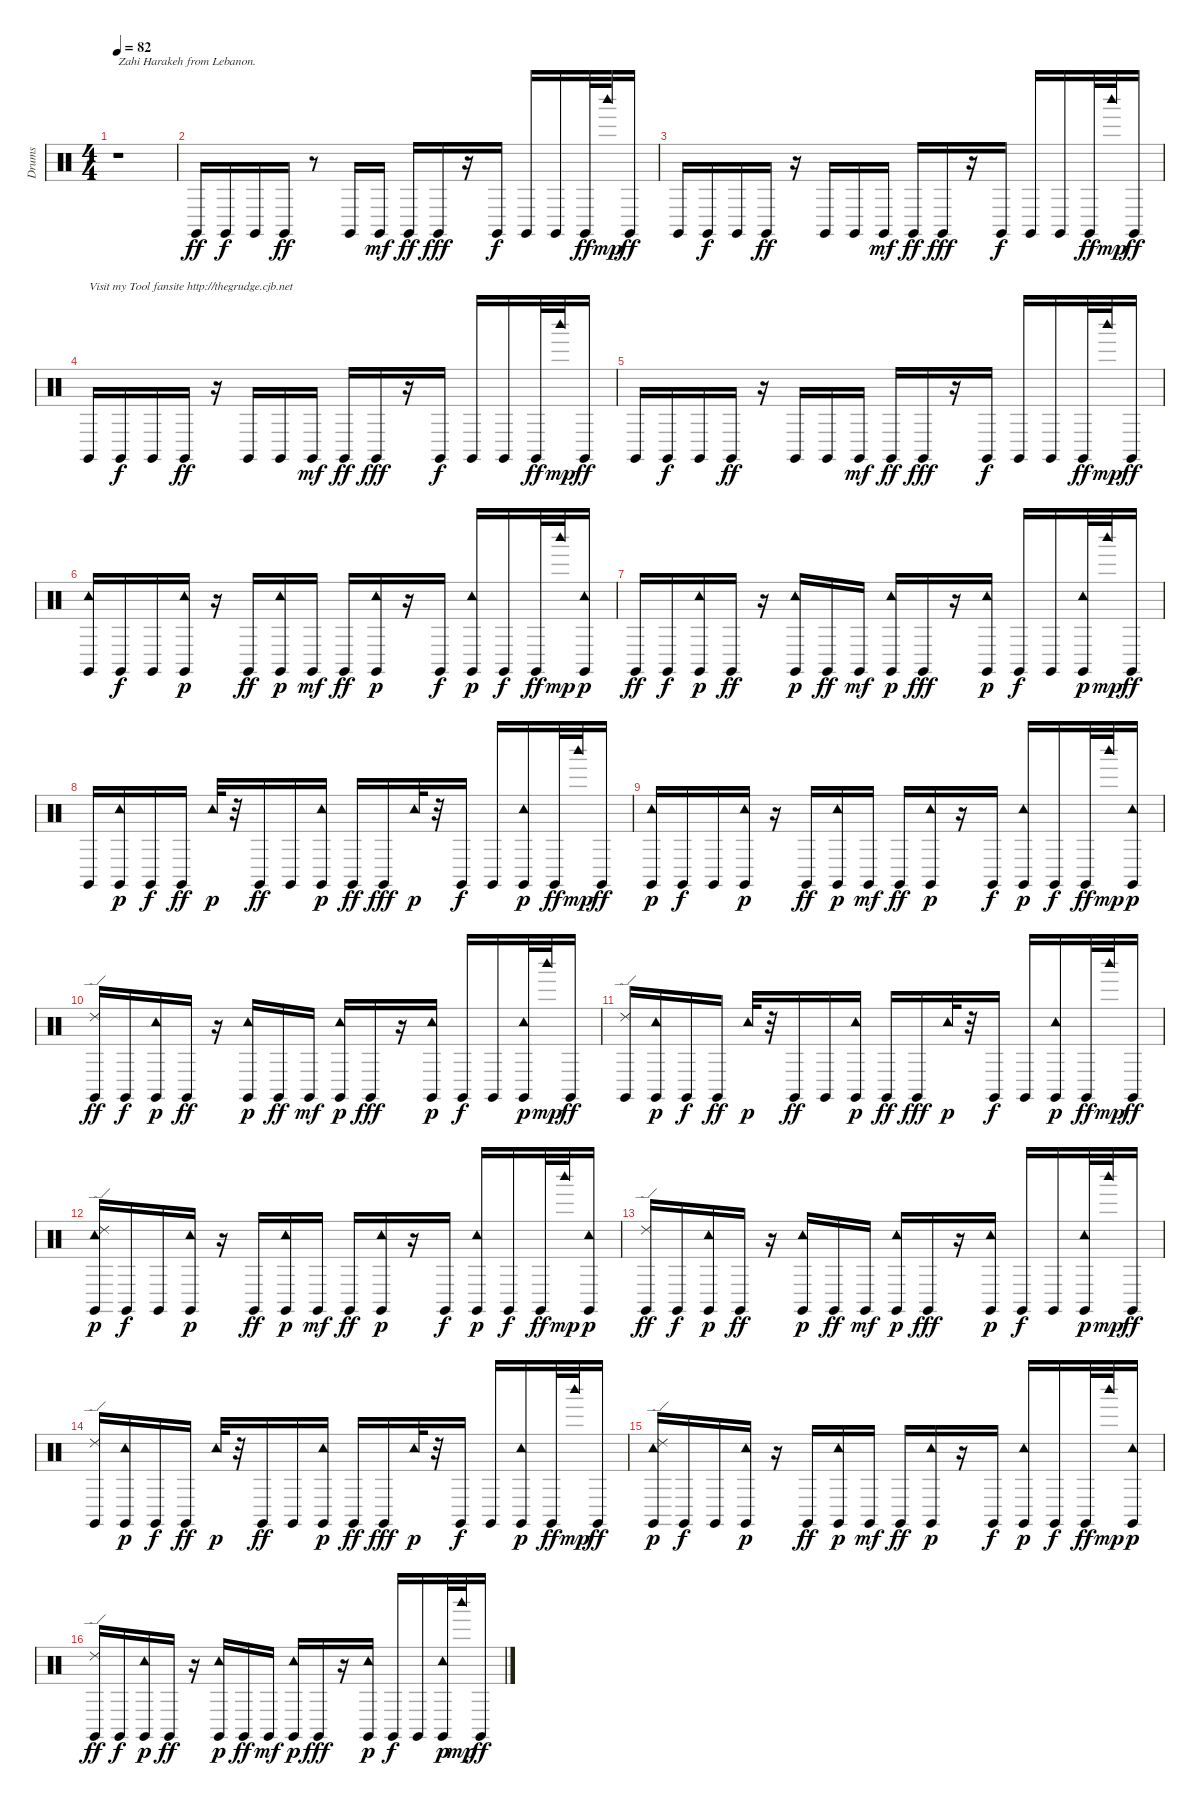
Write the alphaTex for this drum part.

\track ("Drums" "Drums") {instrument percussion}
\staff {score}
\articulation defaults
\ts (4 4)
\tempo 82
\clef neutral
\ks c
r.1{txt "Zahi Harakeh from Lebanon." dy ff} |
"Claves (hit)".16 "Claves (hit)".16{dy f} "Claves (hit)".16 "Claves (hit)".16{dy ff} r.8 "Claves (hit)".16 "Claves (hit)".16{dy mf} "Claves (hit)".16{dy ff} "Claves (hit)".16{dy fff} r.16 "Claves (hit)".16{dy f} "Claves (hit)".16 "Claves (hit)".16 "Claves (hit)".32{dy ff} "Woodblock high (hit)".32{dy mp} "Claves (hit)".16{dy ff} |
"Claves (hit)".16 "Claves (hit)".16{dy f} "Claves (hit)".16 "Claves (hit)".16{dy ff} r.16 "Claves (hit)".16 "Claves (hit)".16 "Claves (hit)".16{dy mf} "Claves (hit)".16{dy ff} "Claves (hit)".16{dy fff} r.16 "Claves (hit)".16{dy f} "Claves (hit)".16 "Claves (hit)".16 "Claves (hit)".32{dy ff} "Woodblock high (hit)".32{dy mp} "Claves (hit)".16{dy ff} |
"Claves (hit)".16{txt "Visit my Tool fansite http://thegrudge.cjb.net"} "Claves (hit)".16{dy f} "Claves (hit)".16 "Claves (hit)".16{dy ff} r.16 "Claves (hit)".16 "Claves (hit)".16 "Claves (hit)".16{dy mf} "Claves (hit)".16{dy ff} "Claves (hit)".16{dy fff} r.16 "Claves (hit)".16{dy f} "Claves (hit)".16 "Claves (hit)".16 "Claves (hit)".32{dy ff} "Woodblock high (hit)".32{dy mp} "Claves (hit)".16{dy ff} |
"Claves (hit)".16 "Claves (hit)".16{dy f} "Claves (hit)".16 "Claves (hit)".16{dy ff} r.16 "Claves (hit)".16 "Claves (hit)".16 "Claves (hit)".16{dy mf} "Claves (hit)".16{dy ff} "Claves (hit)".16{dy fff} r.16 "Claves (hit)".16{dy f} "Claves (hit)".16 "Claves (hit)".16 "Claves (hit)".32{dy ff} "Woodblock high (hit)".32{dy mp} "Claves (hit)".16{dy ff} |
("Tambourine (hit)" "Claves (hit)").16 "Claves (hit)".16{dy f} "Claves (hit)".16 ("Claves (hit)" "Tambourine (hit)").16{dy p} r.16 "Claves (hit)".16{dy ff} ("Claves (hit)" "Tambourine (hit)").16{dy p} "Claves (hit)".16{dy mf} "Claves (hit)".16{dy ff} ("Claves (hit)" "Tambourine (hit)").16{dy p} r.16 "Claves (hit)".16{dy f} ("Claves (hit)" "Tambourine (hit)").16{dy p} "Claves (hit)".16{dy f} "Claves (hit)".32{dy ff} "Woodblock high (hit)".32{dy mp} ("Claves (hit)" "Tambourine (hit)").16{dy p} |
"Claves (hit)".16{dy ff} "Claves (hit)".16{dy f} ("Claves (hit)" "Tambourine (hit)").16{dy p} "Claves (hit)".16{dy ff} r.16 ("Claves (hit)" "Tambourine (hit)").16{dy p} "Claves (hit)".16{dy ff} "Claves (hit)".16{dy mf} ("Claves (hit)" "Tambourine (hit)").16{dy p} "Claves (hit)".16{dy fff} r.16 ("Claves (hit)" "Tambourine (hit)").16{dy p} "Claves (hit)".16{dy f} "Claves (hit)".16 ("Claves (hit)" "Tambourine (hit)").32{dy p} "Woodblock high (hit)".32{dy mp} "Claves (hit)".16{dy ff} |
"Claves (hit)".16 ("Claves (hit)" "Tambourine (hit)").16{dy p} "Claves (hit)".16{dy f} "Claves (hit)".16{dy ff} "Tambourine (hit)".32{dy p} r.32 "Claves (hit)".16{dy ff} "Claves (hit)".16 ("Claves (hit)" "Tambourine (hit)").16{dy p} "Claves (hit)".16{dy ff} "Claves (hit)".16{dy fff} "Tambourine (hit)".32{dy p} r.32 "Claves (hit)".16{dy f} "Claves (hit)".16 ("Claves (hit)" "Tambourine (hit)").16{dy p} "Claves (hit)".32{dy ff} "Woodblock high (hit)".32{dy mp} "Claves (hit)".16{dy ff} |
("Claves (hit)" "Tambourine (hit)").16{dy p} "Claves (hit)".16{dy f} "Claves (hit)".16 ("Claves (hit)" "Tambourine (hit)").16{dy p} r.16 "Claves (hit)".16{dy ff} ("Claves (hit)" "Tambourine (hit)").16{dy p} "Claves (hit)".16{dy mf} "Claves (hit)".16{dy ff} ("Claves (hit)" "Tambourine (hit)").16{dy p} r.16 "Claves (hit)".16{dy f} ("Claves (hit)" "Tambourine (hit)").16{dy p} "Claves (hit)".16{dy f} "Claves (hit)".32{dy ff} "Woodblock high (hit)".32{dy mp} ("Claves (hit)" "Tambourine (hit)").16{dy p} |
("Ride (edge) 2" "Claves (hit)").16{dy ff} "Claves (hit)".16{dy f} ("Claves (hit)" "Tambourine (hit)").16{dy p} "Claves (hit)".16{dy ff} r.16 ("Claves (hit)" "Tambourine (hit)").16{dy p} "Claves (hit)".16{dy ff} "Claves (hit)".16{dy mf} ("Claves (hit)" "Tambourine (hit)").16{dy p} "Claves (hit)".16{dy fff} r.16 ("Claves (hit)" "Tambourine (hit)").16{dy p} "Claves (hit)".16{dy f} "Claves (hit)".16 ("Claves (hit)" "Tambourine (hit)").32{dy p} "Woodblock high (hit)".32{dy mp} "Claves (hit)".16{dy ff} |
("Ride (edge) 2" "Claves (hit)").16 ("Claves (hit)" "Tambourine (hit)").16{dy p} "Claves (hit)".16{dy f} "Claves (hit)".16{dy ff} "Tambourine (hit)".32{dy p} r.32 "Claves (hit)".16{dy ff} "Claves (hit)".16 ("Claves (hit)" "Tambourine (hit)").16{dy p} "Claves (hit)".16{dy ff} "Claves (hit)".16{dy fff} "Tambourine (hit)".32{dy p} r.32 "Claves (hit)".16{dy f} "Claves (hit)".16 ("Claves (hit)" "Tambourine (hit)").16{dy p} "Claves (hit)".32{dy ff} "Woodblock high (hit)".32{dy mp} "Claves (hit)".16{dy ff} |
("Ride (edge) 2" "Claves (hit)" "Tambourine (hit)").16{dy p} "Claves (hit)".16{dy f} "Claves (hit)".16 ("Claves (hit)" "Tambourine (hit)").16{dy p} r.16 "Claves (hit)".16{dy ff} ("Claves (hit)" "Tambourine (hit)").16{dy p} "Claves (hit)".16{dy mf} "Claves (hit)".16{dy ff} ("Claves (hit)" "Tambourine (hit)").16{dy p} r.16 "Claves (hit)".16{dy f} ("Claves (hit)" "Tambourine (hit)").16{dy p} "Claves (hit)".16{dy f} "Claves (hit)".32{dy ff} "Woodblock high (hit)".32{dy mp} ("Claves (hit)" "Tambourine (hit)").16{dy p} |
("Ride (edge) 2" "Claves (hit)").16{dy ff} "Claves (hit)".16{dy f} ("Claves (hit)" "Tambourine (hit)").16{dy p} "Claves (hit)".16{dy ff} r.16 ("Claves (hit)" "Tambourine (hit)").16{dy p} "Claves (hit)".16{dy ff} "Claves (hit)".16{dy mf} ("Claves (hit)" "Tambourine (hit)").16{dy p} "Claves (hit)".16{dy fff} r.16 ("Claves (hit)" "Tambourine (hit)").16{dy p} "Claves (hit)".16{dy f} "Claves (hit)".16 ("Claves (hit)" "Tambourine (hit)").32{dy p} "Woodblock high (hit)".32{dy mp} "Claves (hit)".16{dy ff} |
("Ride (edge) 2" "Claves (hit)").16 ("Claves (hit)" "Tambourine (hit)").16{dy p} "Claves (hit)".16{dy f} "Claves (hit)".16{dy ff} "Tambourine (hit)".32{dy p} r.32 "Claves (hit)".16{dy ff} "Claves (hit)".16 ("Claves (hit)" "Tambourine (hit)").16{dy p} "Claves (hit)".16{dy ff} "Claves (hit)".16{dy fff} "Tambourine (hit)".32{dy p} r.32 "Claves (hit)".16{dy f} "Claves (hit)".16 ("Claves (hit)" "Tambourine (hit)").16{dy p} "Claves (hit)".32{dy ff} "Woodblock high (hit)".32{dy mp} "Claves (hit)".16{dy ff} |
("Ride (edge) 2" "Claves (hit)" "Tambourine (hit)").16{dy p} "Claves (hit)".16{dy f} "Claves (hit)".16 ("Claves (hit)" "Tambourine (hit)").16{dy p} r.16 "Claves (hit)".16{dy ff} ("Claves (hit)" "Tambourine (hit)").16{dy p} "Claves (hit)".16{dy mf} "Claves (hit)".16{dy ff} ("Claves (hit)" "Tambourine (hit)").16{dy p} r.16 "Claves (hit)".16{dy f} ("Claves (hit)" "Tambourine (hit)").16{dy p} "Claves (hit)".16{dy f} "Claves (hit)".32{dy ff} "Woodblock high (hit)".32{dy mp} ("Claves (hit)" "Tambourine (hit)").16{dy p} |
("Ride (edge) 2" "Claves (hit)").16{dy ff} "Claves (hit)".16{dy f} ("Claves (hit)" "Tambourine (hit)").16{dy p} "Claves (hit)".16{dy ff} r.16 ("Claves (hit)" "Tambourine (hit)").16{dy p} "Claves (hit)".16{dy ff} "Claves (hit)".16{dy mf} ("Claves (hit)" "Tambourine (hit)").16{dy p} "Claves (hit)".16{dy fff} r.16 ("Claves (hit)" "Tambourine (hit)").16{dy p} "Claves (hit)".16{dy f} "Claves (hit)".16 ("Claves (hit)" "Tambourine (hit)").32{dy p} "Woodblock high (hit)".32{dy mp} "Claves (hit)".16{dy ff}
